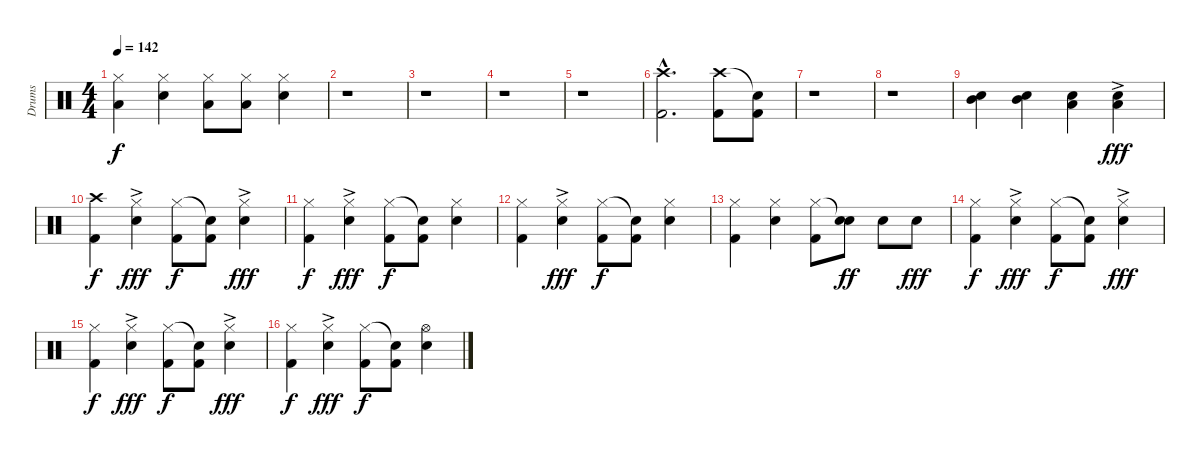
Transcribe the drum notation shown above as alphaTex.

\track ("Drums" "Drums") {instrument percussion}
\staff {score}
\articulation defaults
\ts (4 4)
\tempo 142
\clef neutral
\ks aminor
("Hi-Hat (closed)" "Low Floor Tom (hit)").4{dy f} ("Hi-Hat (closed)" "Snare (hit) 2").4 ("Hi-Hat (closed)" "Low Floor Tom (hit)").8 ("Hi-Hat (closed)" "Low Floor Tom (hit)").8 ("Hi-Hat (closed)" "Snare (hit) 2").4 |
r.1{volume 10} |
r.1 |
r.1 |
r.1 |
("Crash high (hit)"{hac} "Kick (hit) 2"{hac}).2{d volume 6} ("Crash high (hit)" "Kick (hit) 2").8 ("Snare (hit)"{t} "Kick (hit) 2").8 |
r.1 |
r.1 |
("Mid Tom (hit)" "Snare (hit) 2").4 ("Mid Tom (hit)" "Snare (hit) 2").4 ("Low Floor Tom (hit)" "Snare (hit) 2").4 ("Low Floor Tom (hit)"{ac} "Snare (hit) 2"{ac}).4{dy fff} |
("Crash high (hit)" "Kick (hit) 2").4{dy f volume 3} ("Hi-Hat (closed)"{ac} "Snare (hit) 2").4{dy fff} ("Hi-Hat (closed)" "Kick (hit) 2").8{dy f} ("Snare (hit)"{t} "Kick (hit) 2").8 ("Hi-Hat (closed)"{ac} "Snare (hit) 2").4{dy fff} |
("Hi-Hat (closed)" "Kick (hit) 2").4{dy f} ("Hi-Hat (closed)"{ac} "Snare (hit) 2").4{dy fff} ("Hi-Hat (closed)" "Kick (hit) 2").8{dy f} ("Snare (hit)"{t} "Kick (hit) 2").8 ("Hi-Hat (closed)" "Snare (hit) 2").4 |
("Hi-Hat (closed)" "Kick (hit) 2").4 ("Hi-Hat (closed)"{ac} "Snare (hit) 2").4{dy fff} ("Hi-Hat (closed)" "Kick (hit) 2").8{dy f} ("Snare (hit)"{t} "Kick (hit) 2").8 ("Hi-Hat (closed)" "Snare (hit) 2").4 |
("Hi-Hat (closed)" "Kick (hit) 2").4 ("Hi-Hat (closed)" "Snare (hit) 2").4 ("Hi-Hat (closed)" "Kick (hit) 2").8 ("Snare (hit)"{t} "Snare (hit) 2").8{dy ff} "Snare (hit) 2".8 "Snare (hit) 2".8{dy fff} |
("Hi-Hat (closed)" "Kick (hit) 2").4{dy f volume 0} ("Hi-Hat (closed)"{ac} "Snare (hit) 2").4{dy fff} ("Hi-Hat (closed)" "Kick (hit) 2").8{dy f} ("Snare (hit)"{t} "Kick (hit) 2").8 ("Hi-Hat (closed)"{ac} "Snare (hit) 2").4{dy fff} |
("Hi-Hat (closed)" "Kick (hit) 2").4{dy f} ("Hi-Hat (closed)"{ac} "Snare (hit) 2").4{dy fff} ("Hi-Hat (closed)" "Kick (hit) 2").8{dy f} ("Snare (hit)"{t} "Kick (hit) 2").8 ("Hi-Hat (closed)"{ac} "Snare (hit) 2").4{dy fff} |
("Hi-Hat (closed)" "Kick (hit) 2").4{dy f} ("Hi-Hat (closed)"{ac} "Snare (hit) 2").4{dy fff} ("Hi-Hat (closed)" "Kick (hit) 2").8{dy f} ("Snare (hit)"{t} "Kick (hit) 2").8 ("Hi-Hat (open)" "Snare (hit) 2").4
